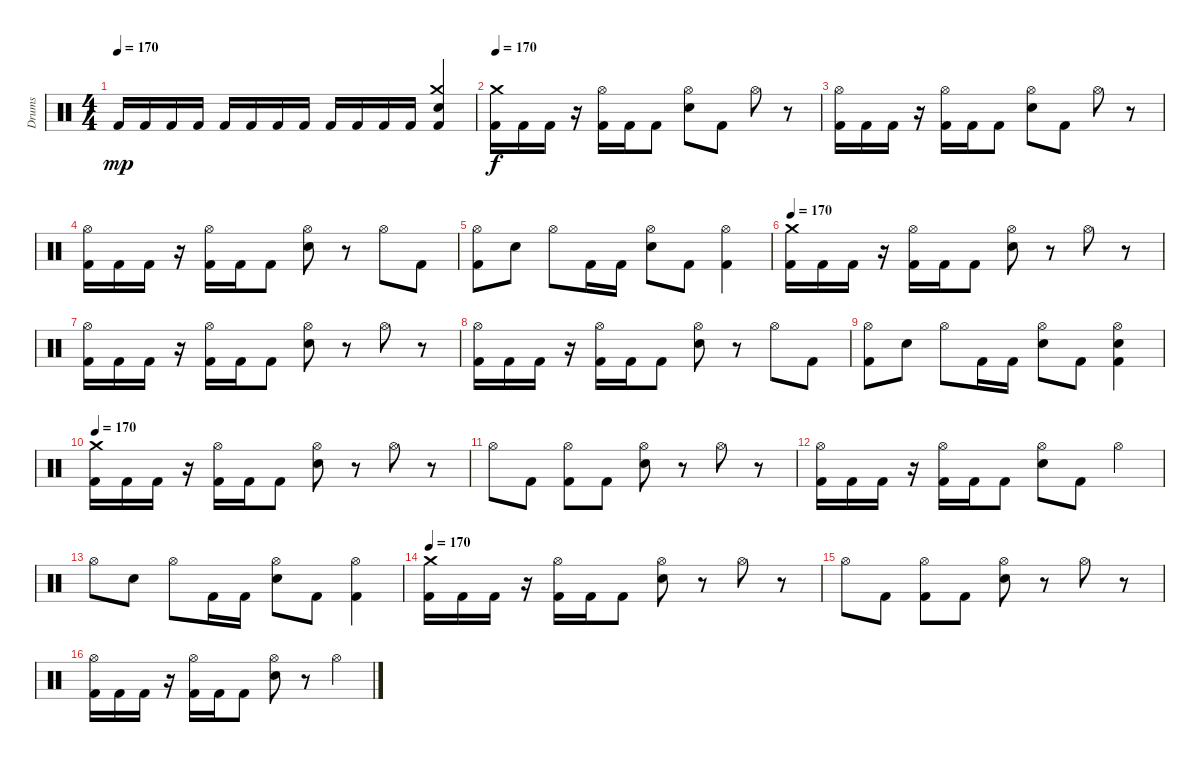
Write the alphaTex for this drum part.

\track ("Drums" "Drums") {instrument percussion}
\staff {score}
\articulation defaults
\ts (4 4)
\tempo 170
\clef neutral
\ks c "Kick (hit) 2".16{dy mp} "Kick (hit) 2".16 "Kick (hit) 2".16 "Kick (hit) 2".16 "Kick (hit) 2".16 "Kick (hit) 2".16 "Kick (hit) 2".16 "Kick (hit) 2".16 "Kick (hit) 2".16 "Kick (hit) 2".16 "Kick (hit) 2".16 "Kick (hit) 2".16
("Crash medium (hit)" "Electric Snare (hit)" "Kick (hit) 2").4 |
\tempo 170
("Crash medium (hit)" "Kick (hit) 2").16{dy f} "Kick (hit) 2".16 "Kick (hit) 2".16 r.16 ("Hi-Hat (open)" "Kick (hit) 2").16 "Kick (hit) 2".16 "Kick (hit) 2".8 ("Hi-Hat (open)" "Electric Snare (hit)").8 "Kick (hit) 2".8 "Hi-Hat (open)".8 r.8 |
("Hi-Hat (open)" "Kick (hit) 2").16 "Kick (hit) 2".16 "Kick (hit) 2".16 r.16 ("Hi-Hat (open)" "Kick (hit) 2").16 "Kick (hit) 2".16 "Kick (hit) 2".8 ("Hi-Hat (open)" "Electric Snare (hit)").8 "Kick (hit) 2".8 "Hi-Hat (open)".8 r.8 |
("Hi-Hat (open)" "Kick (hit) 2").16 "Kick (hit) 2".16 "Kick (hit) 2".16 r.16 ("Hi-Hat (open)" "Kick (hit) 2").16 "Kick (hit) 2".16 "Kick (hit) 2".8 ("Hi-Hat (open)" "Electric Snare (hit)").8 r.8 "Hi-Hat (open)".8 "Kick (hit) 2".8 |
("Hi-Hat (open)" "Kick (hit) 2").8 "Electric Snare (hit)".8 "Hi-Hat (open)".8 "Kick (hit) 2".16 "Kick (hit) 2".16 ("Hi-Hat (open)" "Electric Snare (hit)").8 "Kick (hit) 2".8 ("Hi-Hat (open)" "Kick (hit) 2").4 |
\tempo 170
("Crash medium (hit)" "Kick (hit) 2").16 "Kick (hit) 2".16 "Kick (hit) 2".16 r.16 ("Hi-Hat (open)" "Kick (hit) 2").16 "Kick (hit) 2".16 "Kick (hit) 2".8 ("Hi-Hat (open)" "Electric Snare (hit)").8 r.8 "Hi-Hat (open)".8 r.8 |
("Hi-Hat (open)" "Kick (hit) 2").16 "Kick (hit) 2".16 "Kick (hit) 2".16 r.16 ("Hi-Hat (open)" "Kick (hit) 2").16 "Kick (hit) 2".16 "Kick (hit) 2".8 ("Hi-Hat (open)" "Electric Snare (hit)").8 r.8 "Hi-Hat (open)".8 r.8 |
("Hi-Hat (open)" "Kick (hit) 2").16 "Kick (hit) 2".16 "Kick (hit) 2".16 r.16 ("Hi-Hat (open)" "Kick (hit) 2").16 "Kick (hit) 2".16 "Kick (hit) 2".8 ("Hi-Hat (open)" "Electric Snare (hit)").8 r.8 "Hi-Hat (open)".8 "Kick (hit) 2".8 |
("Hi-Hat (open)" "Kick (hit) 2").8 "Electric Snare (hit)".8 "Hi-Hat (open)".8 "Kick (hit) 2".16 "Kick (hit) 2".16 ("Hi-Hat (open)" "Electric Snare (hit)").8 "Kick (hit) 2".8 ("Hi-Hat (open)" "Electric Snare (hit)" "Kick (hit) 2").4 |
\tempo 170
("Crash medium (hit)" "Kick (hit) 2").16 "Kick (hit) 2".16 "Kick (hit) 2".16 r.16 ("Hi-Hat (open)" "Kick (hit) 2").16 "Kick (hit) 2".16 "Kick (hit) 2".8 ("Hi-Hat (open)" "Electric Snare (hit)").8 r.8 "Hi-Hat (open)".8 r.8 |
"Hi-Hat (open)".8 "Kick (hit) 2".8 ("Hi-Hat (open)" "Kick (hit) 2").8 "Kick (hit) 2".8 ("Hi-Hat (open)" "Electric Snare (hit)").8 r.8 "Hi-Hat (open)".8 r.8 |
("Hi-Hat (open)" "Kick (hit) 2").16 "Kick (hit) 2".16 "Kick (hit) 2".16 r.16 ("Hi-Hat (open)" "Kick (hit) 2").16 "Kick (hit) 2".16 "Kick (hit) 2".8 ("Hi-Hat (open)" "Electric Snare (hit)").8 "Kick (hit) 2".8 "Hi-Hat (open)".4 |
"Hi-Hat (open)".8 "Electric Snare (hit)".8 "Hi-Hat (open)".8 "Kick (hit) 2".16 "Kick (hit) 2".16 ("Hi-Hat (open)" "Electric Snare (hit)").8 "Kick (hit) 2".8 ("Hi-Hat (open)" "Kick (hit) 2").4 |
\tempo 170
("Crash medium (hit)" "Kick (hit) 2").16 "Kick (hit) 2".16 "Kick (hit) 2".16 r.16 ("Hi-Hat (open)" "Kick (hit) 2").16 "Kick (hit) 2".16 "Kick (hit) 2".8 ("Hi-Hat (open)" "Electric Snare (hit)").8 r.8 "Hi-Hat (open)".8 r.8 |
"Hi-Hat (open)".8 "Kick (hit) 2".8 ("Hi-Hat (open)" "Kick (hit) 2").8 "Kick (hit) 2".8 ("Hi-Hat (open)" "Electric Snare (hit)").8 r.8 "Hi-Hat (open)".8 r.8 |
("Hi-Hat (open)" "Kick (hit) 2").16 "Kick (hit) 2".16 "Kick (hit) 2".16 r.16 ("Hi-Hat (open)" "Kick (hit) 2").16 "Kick (hit) 2".16 "Kick (hit) 2".8 ("Hi-Hat (open)" "Electric Snare (hit)").8 r.8 "Hi-Hat (open)".4
